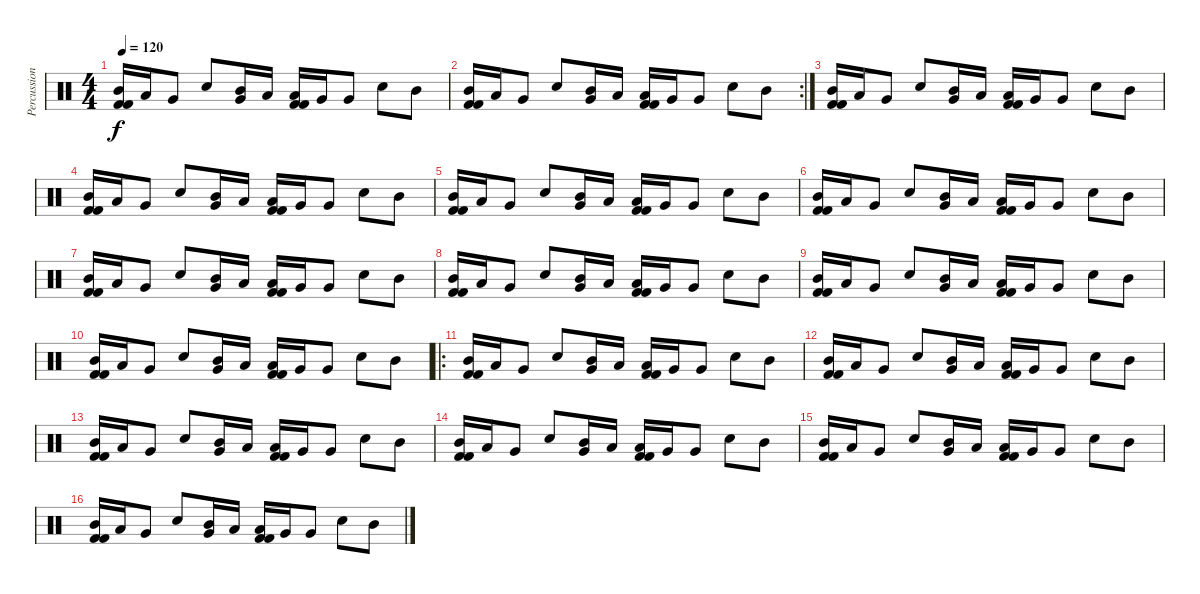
\track ("Percussions" "Percussion") {instrument percussion}
\staff {score}
\articulation defaults
\ts (4 4)
\tempo 120
\clef neutral
\ks c
("Kick (hit) 2" "Mid Tom (hit)" "Kick (hit) 2").16{dy f} "Low Tom (hit)".16 "Very Low Tom (hit)".8 "Snare (hit) 2".8 ("Mid Tom (hit)" "Very Low Tom (hit)").16 "Low Tom (hit)".16 ("Kick (hit) 2" "Low Tom (hit)" "Kick (hit) 2").16 "Very Low Tom (hit)".16 "Very Low Tom (hit)".8 "Snare (hit) 2".8 "Mid Tom (hit)".8 |
\rc 2
("Kick (hit) 2" "Mid Tom (hit)" "Kick (hit) 2").16 "Low Tom (hit)".16 "Very Low Tom (hit)".8 "Snare (hit) 2".8 ("Mid Tom (hit)" "Very Low Tom (hit)").16 "Low Tom (hit)".16 ("Kick (hit) 2" "Low Tom (hit)" "Kick (hit) 2").16 "Very Low Tom (hit)".16 "Very Low Tom (hit)".8 "Snare (hit) 2".8 "Mid Tom (hit)".8 |
("Kick (hit) 2" "Mid Tom (hit)" "Kick (hit) 2").16 "Low Tom (hit)".16 "Very Low Tom (hit)".8 "Snare (hit) 2".8 ("Mid Tom (hit)" "Very Low Tom (hit)").16 "Low Tom (hit)".16 ("Kick (hit) 2" "Low Tom (hit)" "Kick (hit) 2").16 "Very Low Tom (hit)".16 "Very Low Tom (hit)".8 "Snare (hit) 2".8 "Mid Tom (hit)".8 |
("Kick (hit) 2" "Mid Tom (hit)" "Kick (hit) 2").16 "Low Tom (hit)".16 "Very Low Tom (hit)".8 "Snare (hit) 2".8 ("Mid Tom (hit)" "Very Low Tom (hit)").16 "Low Tom (hit)".16 ("Kick (hit) 2" "Low Tom (hit)" "Kick (hit) 2").16 "Very Low Tom (hit)".16 "Very Low Tom (hit)".8 "Snare (hit) 2".8 "Mid Tom (hit)".8 |
("Kick (hit) 2" "Mid Tom (hit)" "Kick (hit) 2").16 "Low Tom (hit)".16 "Very Low Tom (hit)".8 "Snare (hit) 2".8 ("Mid Tom (hit)" "Very Low Tom (hit)").16 "Low Tom (hit)".16 ("Kick (hit) 2" "Low Tom (hit)" "Kick (hit) 2").16 "Very Low Tom (hit)".16 "Very Low Tom (hit)".8 "Snare (hit) 2".8 "Mid Tom (hit)".8 |
("Kick (hit) 2" "Mid Tom (hit)" "Kick (hit) 2").16 "Low Tom (hit)".16 "Very Low Tom (hit)".8 "Snare (hit) 2".8 ("Mid Tom (hit)" "Very Low Tom (hit)").16 "Low Tom (hit)".16 ("Kick (hit) 2" "Low Tom (hit)" "Kick (hit) 2").16 "Very Low Tom (hit)".16 "Very Low Tom (hit)".8 "Snare (hit) 2".8 "Mid Tom (hit)".8 |
("Kick (hit) 2" "Mid Tom (hit)" "Kick (hit) 2").16 "Low Tom (hit)".16 "Very Low Tom (hit)".8 "Snare (hit) 2".8 ("Mid Tom (hit)" "Very Low Tom (hit)").16 "Low Tom (hit)".16 ("Kick (hit) 2" "Low Tom (hit)" "Kick (hit) 2").16 "Very Low Tom (hit)".16 "Very Low Tom (hit)".8 "Snare (hit) 2".8 "Mid Tom (hit)".8 |
("Kick (hit) 2" "Mid Tom (hit)" "Kick (hit) 2").16 "Low Tom (hit)".16 "Very Low Tom (hit)".8 "Snare (hit) 2".8 ("Mid Tom (hit)" "Very Low Tom (hit)").16 "Low Tom (hit)".16 ("Kick (hit) 2" "Low Tom (hit)" "Kick (hit) 2").16 "Very Low Tom (hit)".16 "Very Low Tom (hit)".8 "Snare (hit) 2".8 "Mid Tom (hit)".8 |
("Kick (hit) 2" "Mid Tom (hit)" "Kick (hit) 2").16 "Low Tom (hit)".16 "Very Low Tom (hit)".8 "Snare (hit) 2".8 ("Mid Tom (hit)" "Very Low Tom (hit)").16 "Low Tom (hit)".16 ("Kick (hit) 2" "Low Tom (hit)" "Kick (hit) 2").16 "Very Low Tom (hit)".16 "Very Low Tom (hit)".8 "Snare (hit) 2".8 "Mid Tom (hit)".8 |
("Kick (hit) 2" "Mid Tom (hit)" "Kick (hit) 2").16 "Low Tom (hit)".16 "Very Low Tom (hit)".8 "Snare (hit) 2".8 ("Mid Tom (hit)" "Very Low Tom (hit)").16 "Low Tom (hit)".16 ("Kick (hit) 2" "Low Tom (hit)" "Kick (hit) 2").16 "Very Low Tom (hit)".16 "Very Low Tom (hit)".8 "Snare (hit) 2".8 "Mid Tom (hit)".8 |
\ro
("Kick (hit) 2" "Mid Tom (hit)" "Kick (hit) 2").16 "Low Tom (hit)".16 "Very Low Tom (hit)".8 "Snare (hit) 2".8 ("Mid Tom (hit)" "Very Low Tom (hit)").16 "Low Tom (hit)".16 ("Kick (hit) 2" "Low Tom (hit)" "Kick (hit) 2").16 "Very Low Tom (hit)".16 "Very Low Tom (hit)".8 "Snare (hit) 2".8 "Mid Tom (hit)".8 |
("Kick (hit) 2" "Mid Tom (hit)" "Kick (hit) 2").16 "Low Tom (hit)".16 "Very Low Tom (hit)".8 "Snare (hit) 2".8 ("Mid Tom (hit)" "Very Low Tom (hit)").16 "Low Tom (hit)".16 ("Kick (hit) 2" "Low Tom (hit)" "Kick (hit) 2").16 "Very Low Tom (hit)".16 "Very Low Tom (hit)".8 "Snare (hit) 2".8 "Mid Tom (hit)".8 |
("Kick (hit) 2" "Mid Tom (hit)" "Kick (hit) 2").16 "Low Tom (hit)".16 "Very Low Tom (hit)".8 "Snare (hit) 2".8 ("Mid Tom (hit)" "Very Low Tom (hit)").16 "Low Tom (hit)".16 ("Kick (hit) 2" "Low Tom (hit)" "Kick (hit) 2").16 "Very Low Tom (hit)".16 "Very Low Tom (hit)".8 "Snare (hit) 2".8 "Mid Tom (hit)".8 |
("Kick (hit) 2" "Mid Tom (hit)" "Kick (hit) 2").16 "Low Tom (hit)".16 "Very Low Tom (hit)".8 "Snare (hit) 2".8 ("Mid Tom (hit)" "Very Low Tom (hit)").16 "Low Tom (hit)".16 ("Kick (hit) 2" "Low Tom (hit)" "Kick (hit) 2").16 "Very Low Tom (hit)".16 "Very Low Tom (hit)".8 "Snare (hit) 2".8 "Mid Tom (hit)".8 |
("Kick (hit) 2" "Mid Tom (hit)" "Kick (hit) 2").16 "Low Tom (hit)".16 "Very Low Tom (hit)".8 "Snare (hit) 2".8 ("Mid Tom (hit)" "Very Low Tom (hit)").16 "Low Tom (hit)".16 ("Kick (hit) 2" "Low Tom (hit)" "Kick (hit) 2").16 "Very Low Tom (hit)".16 "Very Low Tom (hit)".8 "Snare (hit) 2".8 "Mid Tom (hit)".8 |
("Kick (hit) 2" "Mid Tom (hit)" "Kick (hit) 2").16 "Low Tom (hit)".16 "Very Low Tom (hit)".8 "Snare (hit) 2".8 ("Mid Tom (hit)" "Very Low Tom (hit)").16 "Low Tom (hit)".16 ("Kick (hit) 2" "Low Tom (hit)" "Kick (hit) 2").16 "Very Low Tom (hit)".16 "Very Low Tom (hit)".8 "Snare (hit) 2".8 "Mid Tom (hit)".8
